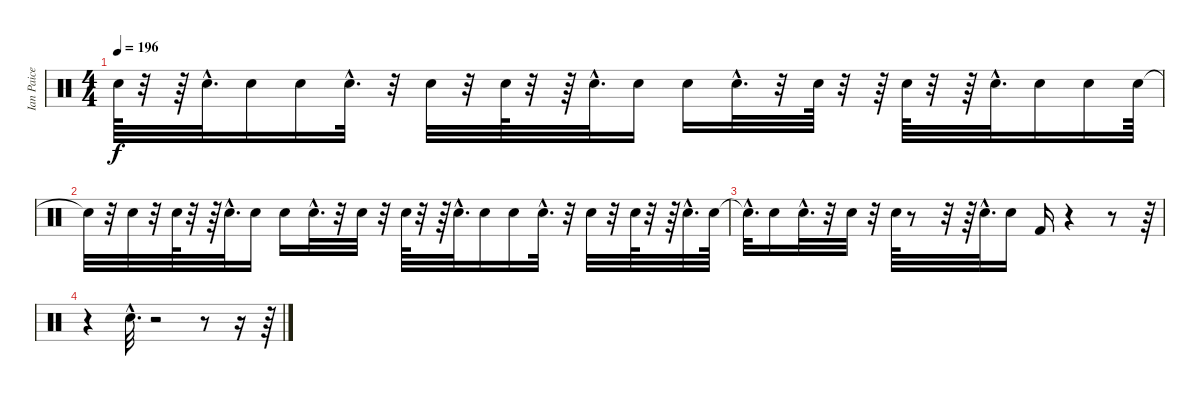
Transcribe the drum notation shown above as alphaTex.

\track ("Ian Paice" "Ian Paice") {instrument percussion}
\staff {score}
\articulation defaults
\ts (4 4)
\tempo 196
\clef neutral
\ks c "Snare (hit) 2".64{dy f}
r.32 r.64 "Snare (hit) 2"{hac}.32{d} "Snare (hit) 2".16 "Snare (hit) 2".16 "Snare (hit) 2"{hac}.32{d} r.32 "Snare (hit) 2".32 r.32 "Snare (hit) 2".64 r.32 r.64 "Snare (hit) 2"{hac}.32{d} "Snare (hit) 2".16 "Snare (hit) 2".16 "Snare (hit) 2"{hac}.32{d} r.32 "Snare (hit) 2".64 r.32 r.64 "Snare (hit) 2".64 r.32 r.64 "Snare (hit) 2"{hac}.32{d} "Snare (hit) 2".16 "Snare (hit) 2".16 "Snare (hit) 2".64 |
"Snare (hit)"{t}.32 r.32 "Snare (hit) 2".32 r.32 "Snare (hit) 2".64 r.32 r.64 "Snare (hit) 2"{hac}.32{d} "Snare (hit) 2".16 "Snare (hit) 2".16 "Snare (hit) 2"{hac}.32{d} r.32 "Snare (hit) 2".32 r.32 "Snare (hit) 2".64 r.32 r.64 "Snare (hit) 2"{hac}.32{d} "Snare (hit) 2".16 "Snare (hit) 2".16 "Snare (hit) 2"{hac}.32{d} r.32 "Snare (hit) 2".32 r.32 "Snare (hit) 2".64 r.32 r.64 "Snare (hit) 2"{hac}.32{d} "Snare (hit) 2".64 |
"Snare (hit)"{hac t}.32{d} "Snare (hit) 2".16 "Snare (hit) 2"{hac}.32{d} r.32 "Snare (hit) 2".32 r.32 "Snare (hit) 2".64 r.8 r.32 r.64 "Snare (hit) 2"{hac}.32{d} "Snare (hit) 2".16 "Kick (hit) 2".16 r.4 r.8 r.64 |
r.4 "Snare (hit) 2"{hac}.32{d} r.2 r.8 r.16 r.64
